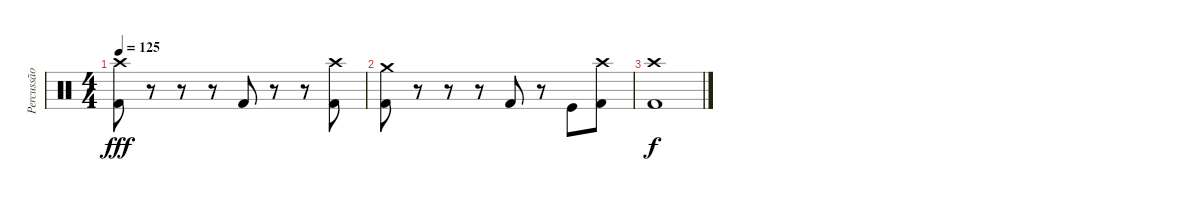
\track ("Percussão" "Percussão") {instrument percussion}
\staff {score}
\articulation defaults
\ts (4 4)
\tempo 125
\clef neutral
\ks c
("Kick (hit) 2" "Crash high (hit)").8{dy fff} r.8 r.8 r.8 "Kick (hit) 2".8 r.8 r.8 ("Kick (hit) 2" "Crash high (hit)").8 |
("Kick (hit) 2" "Crash medium (hit)").8 r.8 r.8 r.8 "Kick (hit) 2".8 r.8 "Kick (hit)".8 ("Kick (hit) 2" "Crash high (hit)").8 |
("Kick (hit) 2" "Crash high (hit)").1{dy f}
